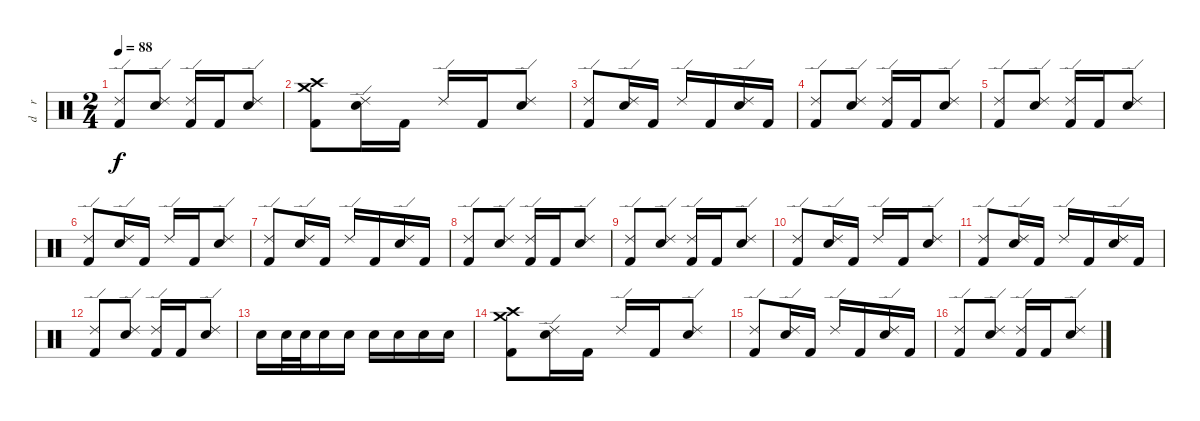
\track ("d    r     u    m    s" "d    r    ") {instrument percussion}
\staff {score}
\articulation defaults
\ts (2 4)
\tempo 88
\clef neutral
\ks c
("Ride (edge) 2" "Kick (hit) 2").8{dy f} ("Ride (edge) 2" "Electric Snare (hit)").8 ("Ride (edge) 2" "Kick (hit) 2").16 "Kick (hit) 2".16 ("Ride (edge) 2" "Electric Snare (hit)").8 |
("Crash high (hit)" "Crash medium (hit)" "Kick (hit) 2").8 ("Ride (edge) 2" "Electric Snare (hit)").16 "Kick (hit) 2".16 "Ride (edge) 2".16 "Kick (hit) 2".16 ("Ride (edge) 2" "Electric Snare (hit)").8 |
("Ride (edge) 2" "Kick (hit) 2").8 ("Ride (edge) 2" "Electric Snare (hit)").16 "Kick (hit) 2".16 "Ride (edge) 2".16 "Kick (hit) 2".16 ("Ride (edge) 2" "Electric Snare (hit)").16 "Kick (hit) 2".16 |
("Ride (edge) 2" "Kick (hit) 2").8 ("Ride (edge) 2" "Electric Snare (hit)").8 ("Ride (edge) 2" "Kick (hit) 2").16 "Kick (hit) 2".16 ("Ride (edge) 2" "Electric Snare (hit)").8 |
("Ride (edge) 2" "Kick (hit) 2").8 ("Ride (edge) 2" "Electric Snare (hit)").8 ("Ride (edge) 2" "Kick (hit) 2").16 "Kick (hit) 2".16 ("Ride (edge) 2" "Electric Snare (hit)").8 |
("Ride (edge) 2" "Kick (hit) 2").8 ("Ride (edge) 2" "Electric Snare (hit)").16 "Kick (hit) 2".16 "Ride (edge) 2".16 "Kick (hit) 2".16 ("Ride (edge) 2" "Electric Snare (hit)").8 |
("Ride (edge) 2" "Kick (hit) 2").8 ("Ride (edge) 2" "Electric Snare (hit)").16 "Kick (hit) 2".16 "Ride (edge) 2".16 "Kick (hit) 2".16 ("Ride (edge) 2" "Electric Snare (hit)").16 "Kick (hit) 2".16 |
("Ride (edge) 2" "Kick (hit) 2").8 ("Ride (edge) 2" "Electric Snare (hit)").8 ("Ride (edge) 2" "Kick (hit) 2").16 "Kick (hit) 2".16 ("Ride (edge) 2" "Electric Snare (hit)").8 |
("Ride (edge) 2" "Kick (hit) 2").8 ("Ride (edge) 2" "Electric Snare (hit)").8 ("Ride (edge) 2" "Kick (hit) 2").16 "Kick (hit) 2".16 ("Ride (edge) 2" "Electric Snare (hit)").8 |
("Ride (edge) 2" "Kick (hit) 2").8 ("Ride (edge) 2" "Electric Snare (hit)").16 "Kick (hit) 2".16 "Ride (edge) 2".16 "Kick (hit) 2".16 ("Ride (edge) 2" "Electric Snare (hit)").8 |
("Ride (edge) 2" "Kick (hit) 2").8 ("Ride (edge) 2" "Electric Snare (hit)").16 "Kick (hit) 2".16 "Ride (edge) 2".16 "Kick (hit) 2".16 ("Ride (edge) 2" "Electric Snare (hit)").16 "Kick (hit) 2".16 |
("Ride (edge) 2" "Kick (hit) 2").8 ("Ride (edge) 2" "Electric Snare (hit)").8 ("Ride (edge) 2" "Kick (hit) 2").16 "Kick (hit) 2".16 ("Ride (edge) 2" "Electric Snare (hit)").8 |
"Electric Snare (hit)".16 "Electric Snare (hit)".32 "Electric Snare (hit)".32 "Electric Snare (hit)".16 "Electric Snare (hit)".16 "Electric Snare (hit)".16 "Electric Snare (hit)".16 "Electric Snare (hit)".16 "Electric Snare (hit)".16 |
("Crash high (hit)" "Crash medium (hit)" "Kick (hit) 2").8 ("Ride (edge) 2" "Electric Snare (hit)").16 "Kick (hit) 2".16 "Ride (edge) 2".16 "Kick (hit) 2".16 ("Ride (edge) 2" "Electric Snare (hit)").8 |
("Ride (edge) 2" "Kick (hit) 2").8 ("Ride (edge) 2" "Electric Snare (hit)").16 "Kick (hit) 2".16 "Ride (edge) 2".16 "Kick (hit) 2".16 ("Ride (edge) 2" "Electric Snare (hit)").16 "Kick (hit) 2".16 |
("Ride (edge) 2" "Kick (hit) 2").8 ("Ride (edge) 2" "Electric Snare (hit)").8 ("Ride (edge) 2" "Kick (hit) 2").16 "Kick (hit) 2".16 ("Ride (edge) 2" "Electric Snare (hit)").8
